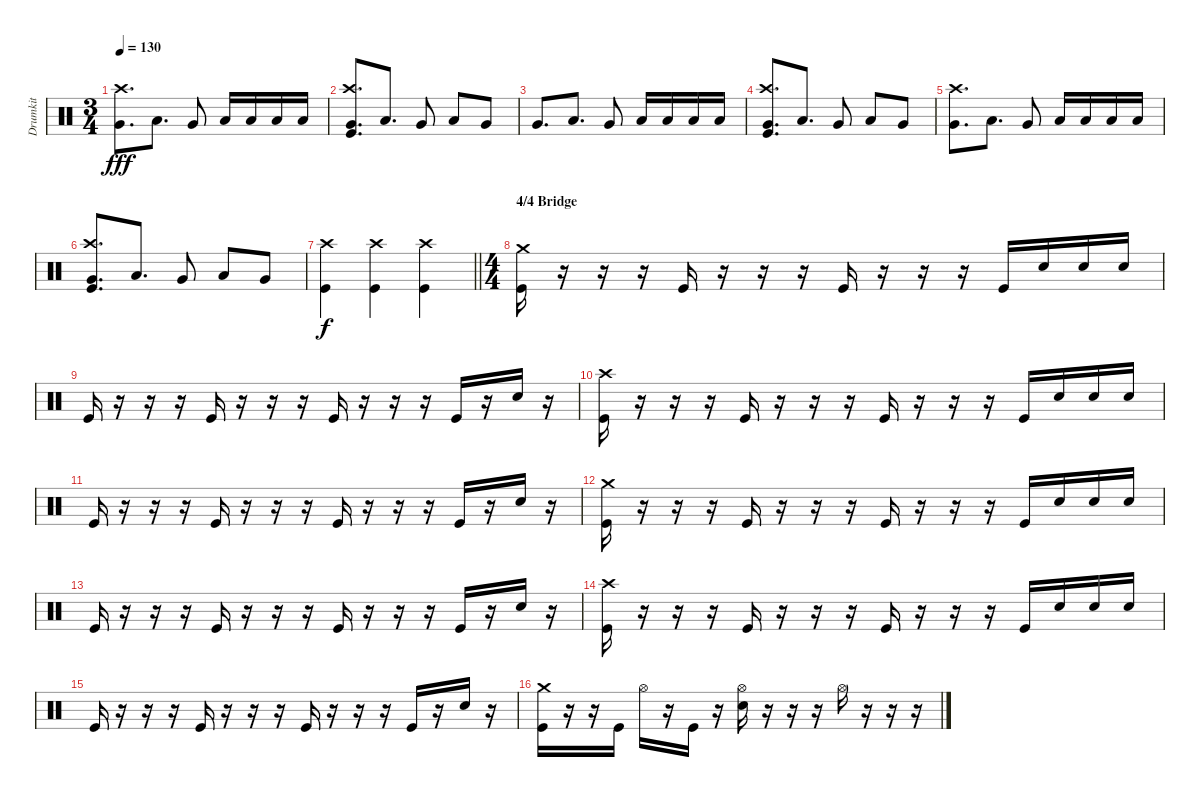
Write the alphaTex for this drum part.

\track ("Drumkit" "Drumkit") {instrument percussion}
\staff {score}
\articulation defaults
\ts (3 4)
\tempo 130
\clef neutral
\ks c
("Very Low Tom (hit)" "Crash high (hit)").8{d dy fff} "Low Tom (hit)".8{d} "Very Low Tom (hit)".8 "Low Tom (hit)".16 "Low Tom (hit)".16 "Low Tom (hit)".16 "Low Tom (hit)".16 |
("Very Low Tom (hit)" "Kick (hit)" "Crash high (hit)").8{d} "Low Tom (hit)".8{d} "Very Low Tom (hit)".8 "Low Tom (hit)".8 "Very Low Tom (hit)".8 |
"Very Low Tom (hit)".8{d} "Low Tom (hit)".8{d} "Very Low Tom (hit)".8 "Low Tom (hit)".16 "Low Tom (hit)".16 "Low Tom (hit)".16 "Low Tom (hit)".16 |
("Very Low Tom (hit)" "Kick (hit)" "Crash high (hit)").8{d} "Low Tom (hit)".8{d} "Very Low Tom (hit)".8 "Low Tom (hit)".8 "Very Low Tom (hit)".8 |
("Very Low Tom (hit)" "Crash high (hit)").8{d} "Low Tom (hit)".8{d} "Very Low Tom (hit)".8 "Low Tom (hit)".16 "Low Tom (hit)".16 "Low Tom (hit)".16 "Low Tom (hit)".16 |
("Very Low Tom (hit)" "Kick (hit)" "Crash high (hit)").8{d} "Low Tom (hit)".8{d} "Very Low Tom (hit)".8 "Low Tom (hit)".8 "Very Low Tom (hit)".8 |
\barLineRight lightlight
("Kick (hit)" "Crash high (hit)").4{dy f} ("Kick (hit)" "Crash high (hit)").4 ("Kick (hit)" "Crash high (hit)").4 |
\ts (4 4)
\section ("" "4/4 Bridge")
("Kick (hit)" "Crash medium (hit)").16 r.16 r.16 r.16 "Kick (hit)".16 r.16 r.16 r.16 "Kick (hit)".16 r.16 r.16 r.16 "Kick (hit)".16 "Snare (hit) 2".16 "Snare (hit) 2".16 "Snare (hit) 2".16 |
"Kick (hit)".16 r.16 r.16 r.16 "Kick (hit)".16 r.16 r.16 r.16 "Kick (hit)".16 r.16 r.16 r.16 "Kick (hit)".16 r.16 "Snare (hit) 2".16 r.16 |
("Kick (hit)" "Crash high (hit)").16 r.16 r.16 r.16 "Kick (hit)".16 r.16 r.16 r.16 "Kick (hit)".16 r.16 r.16 r.16 "Kick (hit)".16 "Snare (hit) 2".16 "Snare (hit) 2".16 "Snare (hit) 2".16 |
"Kick (hit)".16 r.16 r.16 r.16 "Kick (hit)".16 r.16 r.16 r.16 "Kick (hit)".16 r.16 r.16 r.16 "Kick (hit)".16 r.16 "Snare (hit) 2".16 r.16 |
("Kick (hit)" "Crash medium (hit)").16 r.16 r.16 r.16 "Kick (hit)".16 r.16 r.16 r.16 "Kick (hit)".16 r.16 r.16 r.16 "Kick (hit)".16 "Snare (hit) 2".16 "Snare (hit) 2".16 "Snare (hit) 2".16 |
"Kick (hit)".16 r.16 r.16 r.16 "Kick (hit)".16 r.16 r.16 r.16 "Kick (hit)".16 r.16 r.16 r.16 "Kick (hit)".16 r.16 "Snare (hit) 2".16 r.16 |
("Kick (hit)" "Crash high (hit)").16 r.16 r.16 r.16 "Kick (hit)".16 r.16 r.16 r.16 "Kick (hit)".16 r.16 r.16 r.16 "Kick (hit)".16 "Snare (hit) 2".16 "Snare (hit) 2".16 "Snare (hit) 2".16 |
"Kick (hit)".16 r.16 r.16 r.16 "Kick (hit)".16 r.16 r.16 r.16 "Kick (hit)".16 r.16 r.16 r.16 "Kick (hit)".16 r.16 "Snare (hit) 2".16 r.16 |
("Crash medium (hit)" "Kick (hit)").16 r.16 r.16 "Kick (hit)".16 "Hi-Hat (open)".16 r.16 "Kick (hit)".16 r.16 ("Hi-Hat (open)" "Snare (hit) 2").16 r.16 r.16 r.16 "Hi-Hat (open)".16 r.16 r.16 r.16
